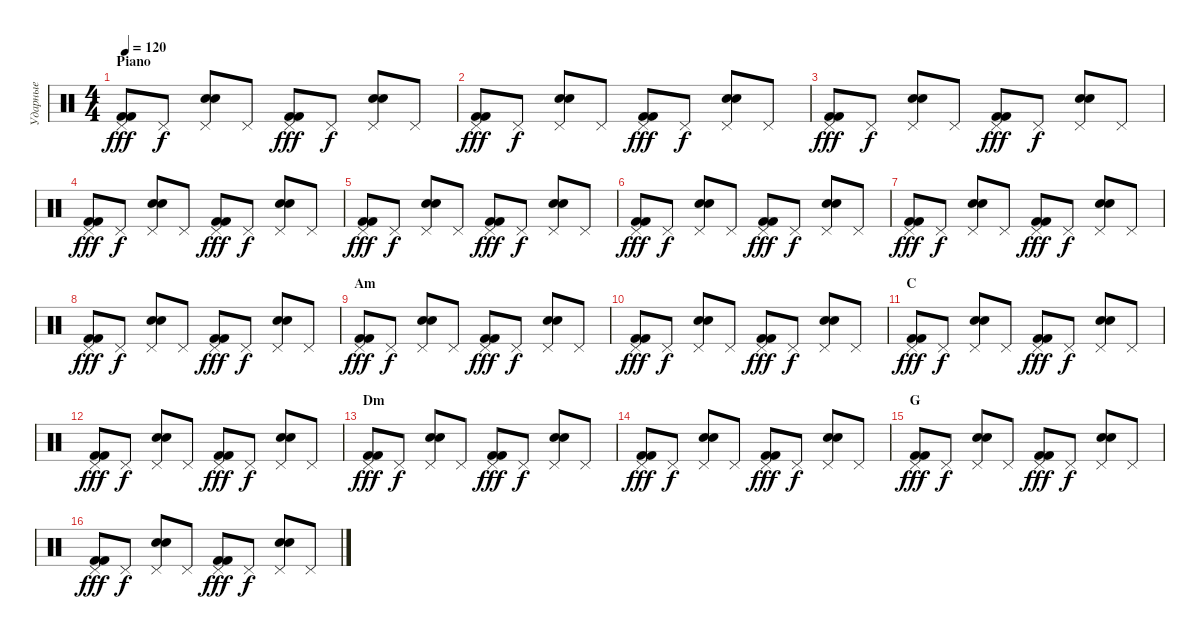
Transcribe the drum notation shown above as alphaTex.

\track ("Ударные" "Ударные") {instrument percussion}
\staff {score}
\articulation defaults
\ts (4 4)
\section ("" "Piano")
\tempo 120
\clef neutral
\ks c
("Kick (hit) 2" "Kick (hit) 2" "Pedal Hi-Hat (hit)").8{dy fff} "Pedal Hi-Hat (hit)".8{dy f} ("Electric Snare (hit)" "Electric Snare (hit)" "Pedal Hi-Hat (hit)").8 "Pedal Hi-Hat (hit)".8 ("Kick (hit) 2" "Kick (hit) 2" "Pedal Hi-Hat (hit)").8{dy fff} "Pedal Hi-Hat (hit)".8{dy f} ("Electric Snare (hit)" "Electric Snare (hit)" "Pedal Hi-Hat (hit)").8 "Pedal Hi-Hat (hit)".8 |
("Kick (hit) 2" "Kick (hit) 2" "Pedal Hi-Hat (hit)").8{dy fff} "Pedal Hi-Hat (hit)".8{dy f} ("Electric Snare (hit)" "Electric Snare (hit)" "Pedal Hi-Hat (hit)").8 "Pedal Hi-Hat (hit)".8 ("Kick (hit) 2" "Kick (hit) 2" "Pedal Hi-Hat (hit)").8{dy fff} "Pedal Hi-Hat (hit)".8{dy f} ("Electric Snare (hit)" "Electric Snare (hit)" "Pedal Hi-Hat (hit)").8 "Pedal Hi-Hat (hit)".8 |
("Kick (hit) 2" "Kick (hit) 2" "Pedal Hi-Hat (hit)").8{dy fff} "Pedal Hi-Hat (hit)".8{dy f} ("Electric Snare (hit)" "Electric Snare (hit)" "Pedal Hi-Hat (hit)").8 "Pedal Hi-Hat (hit)".8 ("Kick (hit) 2" "Kick (hit) 2" "Pedal Hi-Hat (hit)").8{dy fff} "Pedal Hi-Hat (hit)".8{dy f} ("Electric Snare (hit)" "Electric Snare (hit)" "Pedal Hi-Hat (hit)").8 "Pedal Hi-Hat (hit)".8 |
("Kick (hit) 2" "Kick (hit) 2" "Pedal Hi-Hat (hit)").8{dy fff} "Pedal Hi-Hat (hit)".8{dy f} ("Electric Snare (hit)" "Electric Snare (hit)" "Pedal Hi-Hat (hit)").8 "Pedal Hi-Hat (hit)".8 ("Kick (hit) 2" "Kick (hit) 2" "Pedal Hi-Hat (hit)").8{dy fff} "Pedal Hi-Hat (hit)".8{dy f} ("Electric Snare (hit)" "Electric Snare (hit)" "Pedal Hi-Hat (hit)").8 "Pedal Hi-Hat (hit)".8 |
("Kick (hit) 2" "Kick (hit) 2" "Pedal Hi-Hat (hit)").8{dy fff} "Pedal Hi-Hat (hit)".8{dy f} ("Electric Snare (hit)" "Electric Snare (hit)" "Pedal Hi-Hat (hit)").8 "Pedal Hi-Hat (hit)".8 ("Kick (hit) 2" "Kick (hit) 2" "Pedal Hi-Hat (hit)").8{dy fff} "Pedal Hi-Hat (hit)".8{dy f} ("Electric Snare (hit)" "Electric Snare (hit)" "Pedal Hi-Hat (hit)").8 "Pedal Hi-Hat (hit)".8 |
("Kick (hit) 2" "Kick (hit) 2" "Pedal Hi-Hat (hit)").8{dy fff} "Pedal Hi-Hat (hit)".8{dy f} ("Electric Snare (hit)" "Electric Snare (hit)" "Pedal Hi-Hat (hit)").8 "Pedal Hi-Hat (hit)".8 ("Kick (hit) 2" "Kick (hit) 2" "Pedal Hi-Hat (hit)").8{dy fff} "Pedal Hi-Hat (hit)".8{dy f} ("Electric Snare (hit)" "Electric Snare (hit)" "Pedal Hi-Hat (hit)").8 "Pedal Hi-Hat (hit)".8 |
("Kick (hit) 2" "Kick (hit) 2" "Pedal Hi-Hat (hit)").8{dy fff} "Pedal Hi-Hat (hit)".8{dy f} ("Electric Snare (hit)" "Electric Snare (hit)" "Pedal Hi-Hat (hit)").8 "Pedal Hi-Hat (hit)".8 ("Kick (hit) 2" "Kick (hit) 2" "Pedal Hi-Hat (hit)").8{dy fff} "Pedal Hi-Hat (hit)".8{dy f} ("Electric Snare (hit)" "Electric Snare (hit)" "Pedal Hi-Hat (hit)").8 "Pedal Hi-Hat (hit)".8 |
("Kick (hit) 2" "Kick (hit) 2" "Pedal Hi-Hat (hit)").8{dy fff} "Pedal Hi-Hat (hit)".8{dy f} ("Electric Snare (hit)" "Electric Snare (hit)" "Pedal Hi-Hat (hit)").8 "Pedal Hi-Hat (hit)".8 ("Kick (hit) 2" "Kick (hit) 2" "Pedal Hi-Hat (hit)").8{dy fff} "Pedal Hi-Hat (hit)".8{dy f} ("Electric Snare (hit)" "Electric Snare (hit)" "Pedal Hi-Hat (hit)").8 "Pedal Hi-Hat (hit)".8 |
\section ("" "Am")
("Kick (hit) 2" "Kick (hit) 2" "Pedal Hi-Hat (hit)").8{dy fff} "Pedal Hi-Hat (hit)".8{dy f} ("Electric Snare (hit)" "Electric Snare (hit)" "Pedal Hi-Hat (hit)").8 "Pedal Hi-Hat (hit)".8 ("Kick (hit) 2" "Kick (hit) 2" "Pedal Hi-Hat (hit)").8{dy fff} "Pedal Hi-Hat (hit)".8{dy f} ("Electric Snare (hit)" "Electric Snare (hit)" "Pedal Hi-Hat (hit)").8 "Pedal Hi-Hat (hit)".8 |
("Kick (hit) 2" "Kick (hit) 2" "Pedal Hi-Hat (hit)").8{dy fff} "Pedal Hi-Hat (hit)".8{dy f} ("Electric Snare (hit)" "Electric Snare (hit)" "Pedal Hi-Hat (hit)").8 "Pedal Hi-Hat (hit)".8 ("Kick (hit) 2" "Kick (hit) 2" "Pedal Hi-Hat (hit)").8{dy fff} "Pedal Hi-Hat (hit)".8{dy f} ("Electric Snare (hit)" "Electric Snare (hit)" "Pedal Hi-Hat (hit)").8 "Pedal Hi-Hat (hit)".8 |
\section ("" "C")
("Kick (hit) 2" "Kick (hit) 2" "Pedal Hi-Hat (hit)").8{dy fff} "Pedal Hi-Hat (hit)".8{dy f} ("Electric Snare (hit)" "Electric Snare (hit)" "Pedal Hi-Hat (hit)").8 "Pedal Hi-Hat (hit)".8 ("Kick (hit) 2" "Kick (hit) 2" "Pedal Hi-Hat (hit)").8{dy fff} "Pedal Hi-Hat (hit)".8{dy f} ("Electric Snare (hit)" "Electric Snare (hit)" "Pedal Hi-Hat (hit)").8 "Pedal Hi-Hat (hit)".8 |
("Kick (hit) 2" "Kick (hit) 2" "Pedal Hi-Hat (hit)").8{dy fff} "Pedal Hi-Hat (hit)".8{dy f} ("Electric Snare (hit)" "Electric Snare (hit)" "Pedal Hi-Hat (hit)").8 "Pedal Hi-Hat (hit)".8 ("Kick (hit) 2" "Kick (hit) 2" "Pedal Hi-Hat (hit)").8{dy fff} "Pedal Hi-Hat (hit)".8{dy f} ("Electric Snare (hit)" "Electric Snare (hit)" "Pedal Hi-Hat (hit)").8 "Pedal Hi-Hat (hit)".8 |
\section ("" "Dm")
("Kick (hit) 2" "Kick (hit) 2" "Pedal Hi-Hat (hit)").8{dy fff} "Pedal Hi-Hat (hit)".8{dy f} ("Electric Snare (hit)" "Electric Snare (hit)" "Pedal Hi-Hat (hit)").8 "Pedal Hi-Hat (hit)".8 ("Kick (hit) 2" "Kick (hit) 2" "Pedal Hi-Hat (hit)").8{dy fff} "Pedal Hi-Hat (hit)".8{dy f} ("Electric Snare (hit)" "Electric Snare (hit)" "Pedal Hi-Hat (hit)").8 "Pedal Hi-Hat (hit)".8 |
("Kick (hit) 2" "Kick (hit) 2" "Pedal Hi-Hat (hit)").8{dy fff} "Pedal Hi-Hat (hit)".8{dy f} ("Electric Snare (hit)" "Electric Snare (hit)" "Pedal Hi-Hat (hit)").8 "Pedal Hi-Hat (hit)".8 ("Kick (hit) 2" "Kick (hit) 2" "Pedal Hi-Hat (hit)").8{dy fff} "Pedal Hi-Hat (hit)".8{dy f} ("Electric Snare (hit)" "Electric Snare (hit)" "Pedal Hi-Hat (hit)").8 "Pedal Hi-Hat (hit)".8 |
\section ("" "G")
("Kick (hit) 2" "Kick (hit) 2" "Pedal Hi-Hat (hit)").8{dy fff} "Pedal Hi-Hat (hit)".8{dy f} ("Electric Snare (hit)" "Electric Snare (hit)" "Pedal Hi-Hat (hit)").8 "Pedal Hi-Hat (hit)".8 ("Kick (hit) 2" "Kick (hit) 2" "Pedal Hi-Hat (hit)").8{dy fff} "Pedal Hi-Hat (hit)".8{dy f} ("Electric Snare (hit)" "Electric Snare (hit)" "Pedal Hi-Hat (hit)").8 "Pedal Hi-Hat (hit)".8 |
("Kick (hit) 2" "Kick (hit) 2" "Pedal Hi-Hat (hit)").8{dy fff} "Pedal Hi-Hat (hit)".8{dy f} ("Electric Snare (hit)" "Electric Snare (hit)" "Pedal Hi-Hat (hit)").8 "Pedal Hi-Hat (hit)".8 ("Kick (hit) 2" "Kick (hit) 2" "Pedal Hi-Hat (hit)").8{dy fff} "Pedal Hi-Hat (hit)".8{dy f} ("Electric Snare (hit)" "Electric Snare (hit)" "Pedal Hi-Hat (hit)").8 "Pedal Hi-Hat (hit)".8
